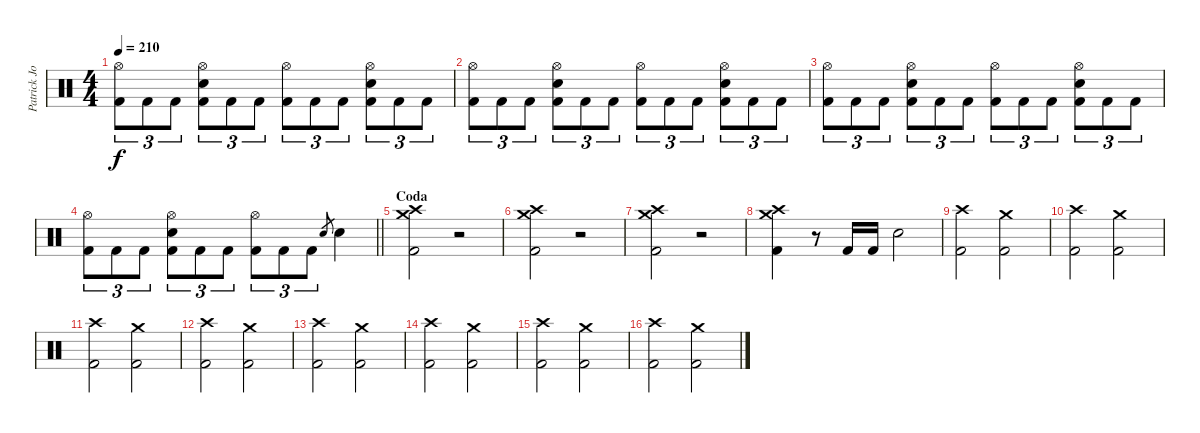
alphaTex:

\track ("Patrick Johansson" "Patrick Jo") {instrument percussion}
\staff {score}
\articulation defaults
\ts (4 4)
\tempo 210
\clef neutral
\ks c
("Hi-Hat (open)" "Kick (hit) 2").8{tu (3 2) dy f} "Kick (hit) 2".8{tu (3 2)} "Kick (hit) 2".8{tu (3 2)} ("Hi-Hat (open)" "Snare (hit) 2" "Kick (hit) 2").8{tu (3 2)} "Kick (hit) 2".8{tu (3 2)} "Kick (hit) 2".8{tu (3 2)} ("Hi-Hat (open)" "Kick (hit) 2").8{tu (3 2)} "Kick (hit) 2".8{tu (3 2)} "Kick (hit) 2".8{tu (3 2)} ("Hi-Hat (open)" "Snare (hit) 2" "Kick (hit) 2").8{tu (3 2)} "Kick (hit) 2".8{tu (3 2)} "Kick (hit) 2".8{tu (3 2)} |
("Hi-Hat (open)" "Kick (hit) 2").8{tu (3 2)} "Kick (hit) 2".8{tu (3 2)} "Kick (hit) 2".8{tu (3 2)} ("Hi-Hat (open)" "Snare (hit) 2" "Kick (hit) 2").8{tu (3 2)} "Kick (hit) 2".8{tu (3 2)} "Kick (hit) 2".8{tu (3 2)} ("Hi-Hat (open)" "Kick (hit) 2").8{tu (3 2)} "Kick (hit) 2".8{tu (3 2)} "Kick (hit) 2".8{tu (3 2)} ("Hi-Hat (open)" "Snare (hit) 2" "Kick (hit) 2").8{tu (3 2)} "Kick (hit) 2".8{tu (3 2)} "Kick (hit) 2".8{tu (3 2)} |
("Hi-Hat (open)" "Kick (hit) 2").8{tu (3 2)} "Kick (hit) 2".8{tu (3 2)} "Kick (hit) 2".8{tu (3 2)} ("Hi-Hat (open)" "Snare (hit) 2" "Kick (hit) 2").8{tu (3 2)} "Kick (hit) 2".8{tu (3 2)} "Kick (hit) 2".8{tu (3 2)} ("Hi-Hat (open)" "Kick (hit) 2").8{tu (3 2)} "Kick (hit) 2".8{tu (3 2)} "Kick (hit) 2".8{tu (3 2)} ("Hi-Hat (open)" "Snare (hit) 2" "Kick (hit) 2").8{tu (3 2)} "Kick (hit) 2".8{tu (3 2)} "Kick (hit) 2".8{tu (3 2)} |
\barLineRight lightlight
("Hi-Hat (open)" "Kick (hit) 2").8{tu (3 2)} "Kick (hit) 2".8{tu (3 2)} "Kick (hit) 2".8{tu (3 2)} ("Hi-Hat (open)" "Snare (hit) 2" "Kick (hit) 2").8{tu (3 2)} "Kick (hit) 2".8{tu (3 2)} "Kick (hit) 2".8{tu (3 2)} ("Hi-Hat (open)" "Kick (hit) 2").8{tu (3 2)} "Kick (hit) 2".8{tu (3 2)} "Kick (hit) 2".8{tu (3 2)} "Snare (hit) 2".8{gr} "Snare (hit) 2".4 |
\section ("" "Coda")
("Crash medium (hit)" "Crash high (hit)" "Kick (hit) 2").2 r.2 |
("Crash medium (hit)" "Crash high (hit)" "Kick (hit) 2").2 r.2 |
("Crash medium (hit)" "Crash high (hit)" "Kick (hit) 2").2 r.2 |
("Crash medium (hit)" "Crash high (hit)" "Kick (hit) 2").4 r.8 "Kick (hit) 2".16 "Kick (hit) 2".16 "Snare (hit) 2".2 |
("Crash high (hit)" "Kick (hit) 2").2 ("Crash medium (hit)" "Kick (hit) 2").2 |
("Crash high (hit)" "Kick (hit) 2").2 ("Crash medium (hit)" "Kick (hit) 2").2 |
("Crash high (hit)" "Kick (hit) 2").2 ("Crash medium (hit)" "Kick (hit) 2").2 |
("Crash high (hit)" "Kick (hit) 2").2 ("Crash medium (hit)" "Kick (hit) 2").2 |
("Crash high (hit)" "Kick (hit) 2").2 ("Crash medium (hit)" "Kick (hit) 2").2 |
("Crash high (hit)" "Kick (hit) 2").2 ("Crash medium (hit)" "Kick (hit) 2").2 |
("Crash high (hit)" "Kick (hit) 2").2 ("Crash medium (hit)" "Kick (hit) 2").2 |
("Crash high (hit)" "Kick (hit) 2").2 ("Crash medium (hit)" "Kick (hit) 2").2
